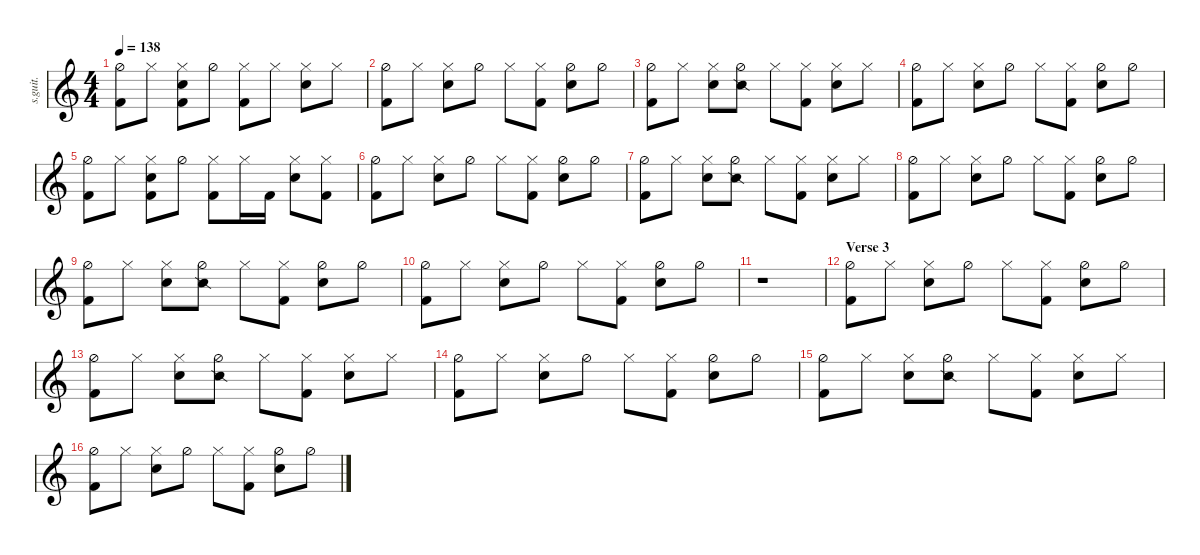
\defaultSystemsLayout 4
\hideDynamics
\bracketExtendMode nobrackets
\track ("Russel Hobbs | Drums" "s.guit.") {instrument percussion}
\staff {score}
\articulation defaults
\ts (4 4)
\tempo 138
\clef g2
\ks c
("Hi-Hat (half)" "Kick (hit) 2").8{dy f} "Hi-Hat (closed)".8 ("Hi-Hat (closed)" "Snare (hit) 2" "Kick (hit) 2").8 "Hi-Hat (half)".8 ("Hi-Hat (closed)" "Kick (hit) 2").8 "Hi-Hat (closed)".8 ("Hi-Hat (closed)" "Snare (hit) 2").8 "Hi-Hat (closed)".8 |
("Hi-Hat (half)" "Kick (hit) 2").8 "Hi-Hat (closed)".8 ("Hi-Hat (closed)" "Snare (hit) 2").8 "Hi-Hat (half)".8 "Hi-Hat (closed)".8 ("Hi-Hat (closed)" "Kick (hit) 2").8 ("Hi-Hat (half)" "Snare (hit) 2").8 "Hi-Hat (half)".8 |
("Hi-Hat (half)" "Kick (hit) 2").8 "Hi-Hat (closed)".8 ("Hi-Hat (closed)" "Snare (hit) 2").8 ("Hi-Hat (half)" "Snare (side stick) 2").8 "Hi-Hat (closed)".8 ("Hi-Hat (closed)" "Kick (hit) 2").8 ("Hi-Hat (closed)" "Snare (hit) 2").8 "Hi-Hat (closed)".8 |
("Hi-Hat (half)" "Kick (hit) 2").8 "Hi-Hat (closed)".8 ("Hi-Hat (closed)" "Snare (hit) 2").8 "Hi-Hat (half)".8 "Hi-Hat (closed)".8 ("Hi-Hat (closed)" "Kick (hit) 2").8 ("Hi-Hat (half)" "Snare (hit) 2").8 "Hi-Hat (half)".8 |
("Hi-Hat (half)" "Kick (hit) 2").8 "Hi-Hat (closed)".8 ("Hi-Hat (closed)" "Snare (hit) 2" "Kick (hit) 2").8 "Hi-Hat (half)".8 ("Hi-Hat (closed)" "Kick (hit) 2").8 "Hi-Hat (closed)".16 "Kick (hit) 2".16{dy fff} ("Hi-Hat (closed)" "Snare (hit) 2").8{dy f} ("Hi-Hat (closed)" "Kick (hit) 2").8 |
("Hi-Hat (half)" "Kick (hit) 2").8 "Hi-Hat (closed)".8 ("Hi-Hat (closed)" "Snare (hit) 2").8 "Hi-Hat (half)".8 "Hi-Hat (closed)".8 ("Hi-Hat (closed)" "Kick (hit) 2").8 ("Hi-Hat (half)" "Snare (hit) 2").8 "Hi-Hat (half)".8 |
("Hi-Hat (half)" "Kick (hit) 2").8 "Hi-Hat (closed)".8 ("Hi-Hat (closed)" "Snare (hit) 2").8 ("Hi-Hat (half)" "Snare (side stick) 2").8 "Hi-Hat (closed)".8 ("Hi-Hat (closed)" "Kick (hit) 2").8 ("Hi-Hat (closed)" "Snare (hit) 2").8 "Hi-Hat (closed)".8 |
("Hi-Hat (half)" "Kick (hit) 2").8 "Hi-Hat (closed)".8 ("Hi-Hat (closed)" "Snare (hit) 2").8 "Hi-Hat (half)".8 "Hi-Hat (closed)".8 ("Hi-Hat (closed)" "Kick (hit) 2").8 ("Hi-Hat (half)" "Snare (hit) 2").8 "Hi-Hat (half)".8 |
("Hi-Hat (half)" "Kick (hit) 2").8 "Hi-Hat (closed)".8 ("Hi-Hat (closed)" "Snare (hit) 2").8 ("Hi-Hat (half)" "Snare (side stick) 2").8 "Hi-Hat (closed)".8 ("Hi-Hat (closed)" "Kick (hit) 2").8 ("Hi-Hat (half)" "Snare (hit) 2").8 "Hi-Hat (half)".8 |
("Hi-Hat (half)" "Kick (hit) 2").8 "Hi-Hat (closed)".8 ("Hi-Hat (closed)" "Snare (hit) 2").8 "Hi-Hat (half)".8 "Hi-Hat (closed)".8 ("Hi-Hat (closed)" "Kick (hit) 2").8 ("Hi-Hat (half)" "Snare (hit) 2").8 "Hi-Hat (half)".8 |
r.1 |
\section ("" "Verse 3")
("Hi-Hat (half)" "Kick (hit) 2").8 "Hi-Hat (closed)".8 ("Hi-Hat (closed)" "Snare (hit) 2").8 "Hi-Hat (half)".8 "Hi-Hat (closed)".8 ("Hi-Hat (closed)" "Kick (hit) 2").8 ("Hi-Hat (half)" "Snare (hit) 2").8 "Hi-Hat (half)".8 |
("Hi-Hat (half)" "Kick (hit) 2").8 "Hi-Hat (closed)".8 ("Hi-Hat (closed)" "Snare (hit) 2").8 ("Hi-Hat (half)" "Snare (side stick) 2").8 "Hi-Hat (closed)".8 ("Hi-Hat (closed)" "Kick (hit) 2").8 ("Hi-Hat (closed)" "Snare (hit) 2").8 "Hi-Hat (closed)".8 |
("Hi-Hat (half)" "Kick (hit) 2").8 "Hi-Hat (closed)".8 ("Hi-Hat (closed)" "Snare (hit) 2").8 "Hi-Hat (half)".8 "Hi-Hat (closed)".8 ("Hi-Hat (closed)" "Kick (hit) 2").8 ("Hi-Hat (half)" "Snare (hit) 2").8 "Hi-Hat (half)".8 |
("Hi-Hat (half)" "Kick (hit) 2").8 "Hi-Hat (closed)".8 ("Hi-Hat (closed)" "Snare (hit) 2").8 ("Hi-Hat (half)" "Snare (side stick) 2").8 "Hi-Hat (closed)".8 ("Hi-Hat (closed)" "Kick (hit) 2").8 ("Hi-Hat (closed)" "Snare (hit) 2").8 "Hi-Hat (closed)".8 |
("Hi-Hat (half)" "Kick (hit) 2").8 "Hi-Hat (closed)".8 ("Hi-Hat (closed)" "Snare (hit) 2").8 "Hi-Hat (half)".8 "Hi-Hat (closed)".8 ("Hi-Hat (closed)" "Kick (hit) 2").8 ("Hi-Hat (half)" "Snare (hit) 2").8 "Hi-Hat (half)".8
